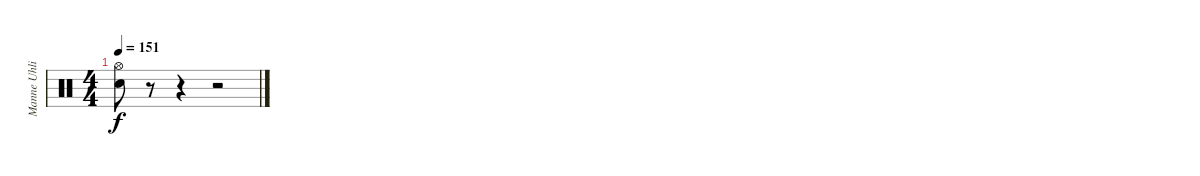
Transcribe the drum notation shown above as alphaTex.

\track ("Manne Uhlig" "Manne Uhli") {instrument percussion}
\staff {score}
\articulation defaults
\ts (4 4)
\tempo 151
\clef neutral
\ks c
("Hi-Hat (open)" "Snare (hit) 2").8{dy f} r.8 r.4 r.2
